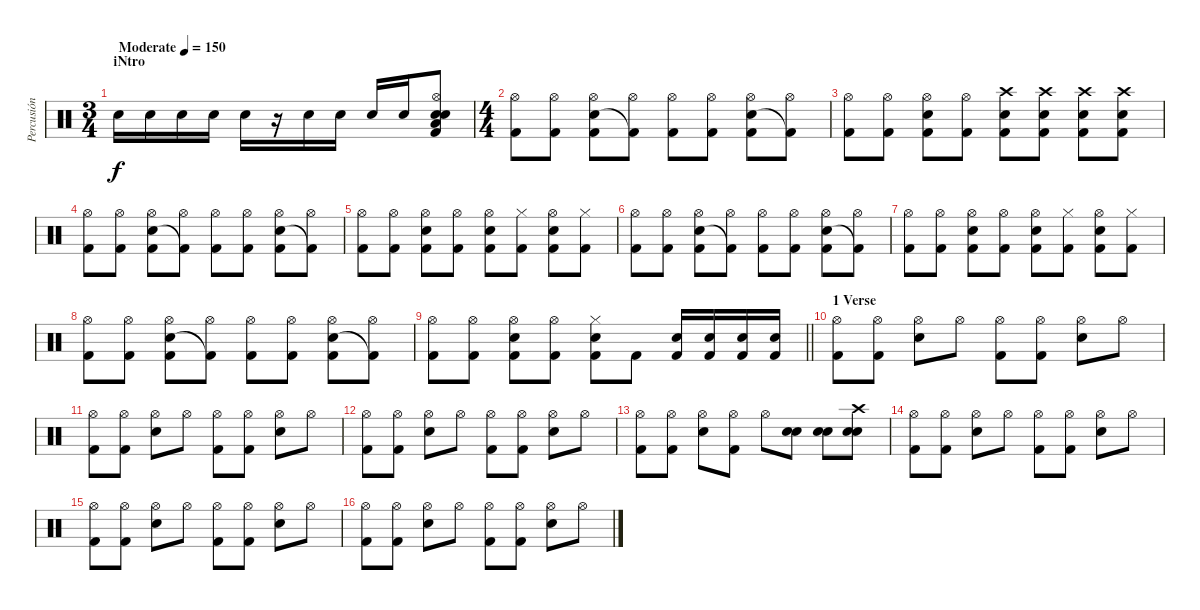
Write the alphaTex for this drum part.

\track ("Percusión" "Percusión") {instrument percussion}
\staff {score}
\articulation defaults
\ts (3 4)
\section ("" "iNtro")
\tempo (150 "Moderate")
\clef neutral
\ks c "Electric Snare (hit)".16{dy f} "Electric Snare (hit)".16 "Electric Snare (hit)".16 "Electric Snare (hit)".16 "Electric Snare (hit)".16
r.16 "Electric Snare (hit)".16 "Electric Snare (hit)".16 "Electric Snare (hit)".16 "Electric Snare (hit)".16 ("Hi-Hat (open)" "Electric Snare (hit)" "Snare (hit) 2" "Low Floor Tom (hit)" "Kick (hit) 2").8 |
\ts (4 4)
("Hi-Hat (open)" "Kick (hit) 2").8 ("Hi-Hat (open)" "Kick (hit) 2").8 ("Hi-Hat (open)" "Snare (hit) 2" "Kick (hit) 2").8 ("Hi-Hat (open)" "Kick (hit) 2"{t}).8 ("Hi-Hat (open)" "Kick (hit) 2").8 ("Hi-Hat (open)" "Kick (hit) 2").8 ("Hi-Hat (open)" "Snare (hit) 2" "Kick (hit) 2").8 ("Hi-Hat (open)" "Kick (hit) 2"{t}).8 |
("Hi-Hat (open)" "Kick (hit) 2").8 ("Hi-Hat (open)" "Kick (hit) 2").8 ("Hi-Hat (open)" "Snare (hit) 2" "Kick (hit) 2").8 ("Hi-Hat (open)" "Kick (hit) 2").8 ("Crash high (hit)" "Snare (hit) 2" "Kick (hit) 2").8 ("Crash high (hit)" "Snare (hit) 2" "Kick (hit) 2").8 ("Crash high (hit)" "Snare (hit) 2" "Kick (hit) 2").8 ("Crash high (hit)" "Snare (hit) 2" "Kick (hit) 2").8 |
("Hi-Hat (open)" "Kick (hit) 2").8 ("Hi-Hat (open)" "Kick (hit) 2").8 ("Hi-Hat (open)" "Snare (hit) 2" "Kick (hit) 2").8 ("Hi-Hat (open)" "Kick (hit) 2"{t}).8 ("Hi-Hat (open)" "Kick (hit) 2").8 ("Hi-Hat (open)" "Kick (hit) 2").8 ("Hi-Hat (open)" "Snare (hit) 2" "Kick (hit) 2").8 ("Hi-Hat (open)" "Kick (hit) 2"{t}).8 |
("Hi-Hat (open)" "Kick (hit) 2").8 ("Hi-Hat (open)" "Kick (hit) 2").8 ("Hi-Hat (open)" "Snare (hit) 2" "Kick (hit) 2").8 ("Hi-Hat (open)" "Kick (hit) 2").8 ("Hi-Hat (open)" "Snare (hit) 2" "Kick (hit) 2").8 ("Hi-Hat (closed)" "Kick (hit) 2").8 ("Hi-Hat (open)" "Snare (hit) 2" "Kick (hit) 2").8 ("Hi-Hat (closed)" "Kick (hit) 2").8 |
("Hi-Hat (open)" "Kick (hit) 2").8 ("Hi-Hat (open)" "Kick (hit) 2").8 ("Hi-Hat (open)" "Snare (hit) 2" "Kick (hit) 2").8 ("Hi-Hat (open)" "Kick (hit) 2"{t}).8 ("Hi-Hat (open)" "Kick (hit) 2").8 ("Hi-Hat (open)" "Kick (hit) 2").8 ("Hi-Hat (open)" "Snare (hit) 2" "Kick (hit) 2").8 ("Hi-Hat (open)" "Kick (hit) 2"{t}).8 |
("Hi-Hat (open)" "Kick (hit) 2").8 ("Hi-Hat (open)" "Kick (hit) 2").8 ("Hi-Hat (open)" "Snare (hit) 2" "Kick (hit) 2").8 ("Hi-Hat (open)" "Kick (hit) 2").8 ("Hi-Hat (open)" "Snare (hit) 2" "Kick (hit) 2").8 ("Hi-Hat (closed)" "Kick (hit) 2").8 ("Hi-Hat (open)" "Snare (hit) 2" "Kick (hit) 2").8 ("Hi-Hat (closed)" "Kick (hit) 2").8 |
("Hi-Hat (open)" "Kick (hit) 2").8 ("Hi-Hat (open)" "Kick (hit) 2").8 ("Hi-Hat (open)" "Snare (hit) 2" "Kick (hit) 2").8 ("Hi-Hat (open)" "Kick (hit) 2"{t}).8 ("Hi-Hat (open)" "Kick (hit) 2").8 ("Hi-Hat (open)" "Kick (hit) 2").8 ("Hi-Hat (open)" "Snare (hit) 2" "Kick (hit) 2").8 ("Hi-Hat (open)" "Kick (hit) 2"{t}).8 |
\barLineRight lightlight
("Hi-Hat (open)" "Kick (hit) 2").8 ("Hi-Hat (open)" "Kick (hit) 2").8 ("Hi-Hat (open)" "Snare (hit) 2" "Kick (hit) 2").8 ("Hi-Hat (open)" "Kick (hit) 2").8 ("Hi-Hat (closed)" "Snare (hit) 2" "Kick (hit) 2").8 "Kick (hit) 2".8 ("Snare (hit) 2" "Kick (hit) 2").16 ("Snare (hit) 2" "Kick (hit) 2").16 ("Snare (hit) 2" "Kick (hit) 2").16 ("Snare (hit) 2" "Kick (hit) 2").16 |
\section ("" "1 Verse")
("Hi-Hat (open)" "Kick (hit) 2").8 ("Hi-Hat (open)" "Kick (hit) 2").8 ("Hi-Hat (open)" "Snare (hit) 2").8 "Hi-Hat (open)".8 ("Hi-Hat (open)" "Kick (hit) 2").8 ("Hi-Hat (open)" "Kick (hit) 2").8 ("Hi-Hat (open)" "Snare (hit) 2").8 "Hi-Hat (open)".8 |
("Hi-Hat (open)" "Kick (hit) 2").8 ("Hi-Hat (open)" "Kick (hit) 2").8 ("Hi-Hat (open)" "Snare (hit) 2").8 "Hi-Hat (open)".8 ("Hi-Hat (open)" "Kick (hit) 2").8 ("Hi-Hat (open)" "Kick (hit) 2").8 ("Hi-Hat (open)" "Snare (hit) 2").8 "Hi-Hat (open)".8 |
("Hi-Hat (open)" "Kick (hit) 2").8 ("Hi-Hat (open)" "Kick (hit) 2").8 ("Hi-Hat (open)" "Snare (hit) 2").8 "Hi-Hat (open)".8 ("Hi-Hat (open)" "Kick (hit) 2").8 ("Hi-Hat (open)" "Kick (hit) 2").8 ("Hi-Hat (open)" "Snare (hit) 2").8 "Hi-Hat (open)".8 |
("Hi-Hat (open)" "Kick (hit) 2").8 ("Hi-Hat (open)" "Kick (hit) 2").8 ("Hi-Hat (open)" "Snare (hit) 2").8 ("Hi-Hat (open)" "Kick (hit) 2").8 "Hi-Hat (open)".8 ("Electric Snare (hit)" "Snare (hit) 2").8 ("Electric Snare (hit)" "Snare (hit) 2").8 ("Crash high (hit)" "Electric Snare (hit)" "Snare (hit) 2").8 |
("Hi-Hat (open)" "Kick (hit) 2").8 ("Hi-Hat (open)" "Kick (hit) 2").8 ("Hi-Hat (open)" "Snare (hit) 2").8 "Hi-Hat (open)".8 ("Hi-Hat (open)" "Kick (hit) 2").8 ("Hi-Hat (open)" "Kick (hit) 2").8 ("Hi-Hat (open)" "Snare (hit) 2").8 "Hi-Hat (open)".8 |
("Hi-Hat (open)" "Kick (hit) 2").8 ("Hi-Hat (open)" "Kick (hit) 2").8 ("Hi-Hat (open)" "Snare (hit) 2").8 "Hi-Hat (open)".8 ("Hi-Hat (open)" "Kick (hit) 2").8 ("Hi-Hat (open)" "Kick (hit) 2").8 ("Hi-Hat (open)" "Snare (hit) 2").8 "Hi-Hat (open)".8 |
("Hi-Hat (open)" "Kick (hit) 2").8 ("Hi-Hat (open)" "Kick (hit) 2").8 ("Hi-Hat (open)" "Snare (hit) 2").8 "Hi-Hat (open)".8 ("Hi-Hat (open)" "Kick (hit) 2").8 ("Hi-Hat (open)" "Kick (hit) 2").8 ("Hi-Hat (open)" "Snare (hit) 2").8 "Hi-Hat (open)".8
